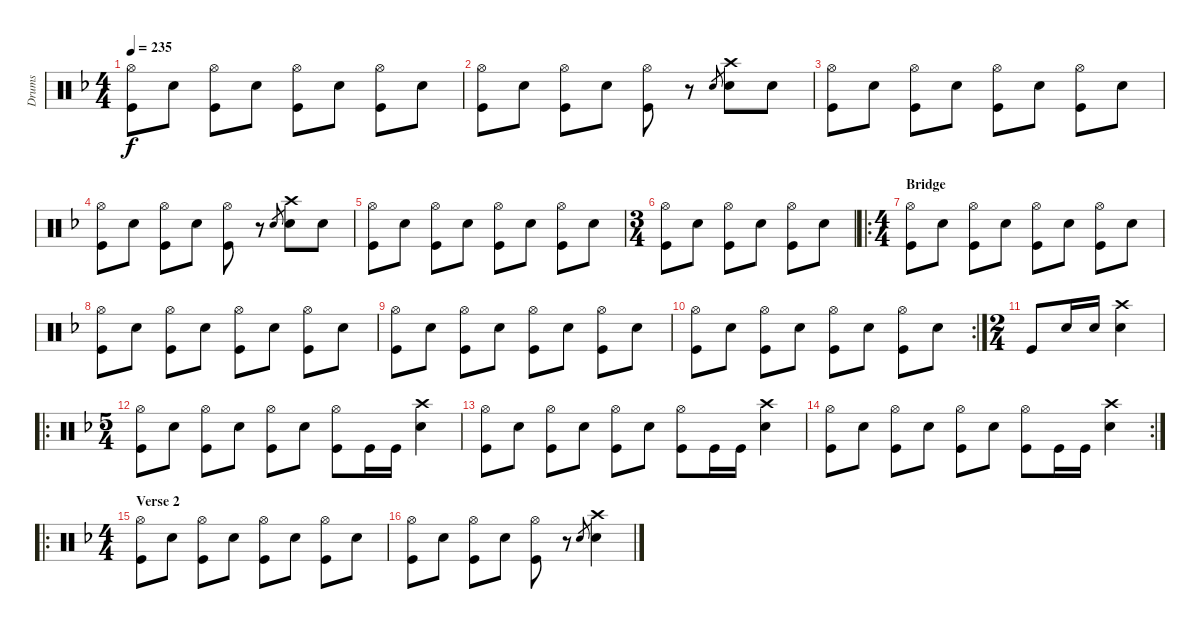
\track ("Drums" "Drums") {instrument percussion}
\staff {score}
\articulation defaults
\ts (4 4)
\tempo 235
\clef neutral
\ks f
("Hi-Hat (open)" "Kick (hit)").8{dy f} "Electric Snare (hit)".8 ("Hi-Hat (open)" "Kick (hit)").8 "Electric Snare (hit)".8 ("Hi-Hat (open)" "Kick (hit)").8 "Electric Snare (hit)".8 ("Hi-Hat (open)" "Kick (hit)").8 "Electric Snare (hit)".8 |
("Hi-Hat (open)" "Kick (hit)").8 "Electric Snare (hit)".8 ("Hi-Hat (open)" "Kick (hit)").8 "Electric Snare (hit)".8 ("Hi-Hat (open)" "Kick (hit)").8 r.8 "Electric Snare (hit)".8{gr} ("Crash high (hit)" "Electric Snare (hit)").8 "Electric Snare (hit)".8 |
("Hi-Hat (open)" "Kick (hit)").8 "Electric Snare (hit)".8 ("Hi-Hat (open)" "Kick (hit)").8 "Electric Snare (hit)".8 ("Hi-Hat (open)" "Kick (hit)").8 "Electric Snare (hit)".8 ("Hi-Hat (open)" "Kick (hit)").8 "Electric Snare (hit)".8 |
("Hi-Hat (open)" "Kick (hit)").8 "Electric Snare (hit)".8 ("Hi-Hat (open)" "Kick (hit)").8 "Electric Snare (hit)".8 ("Hi-Hat (open)" "Kick (hit)").8 r.8 "Electric Snare (hit)".8{gr} ("Crash high (hit)" "Electric Snare (hit)").8 "Electric Snare (hit)".8 |
("Hi-Hat (open)" "Kick (hit)").8 "Electric Snare (hit)".8 ("Hi-Hat (open)" "Kick (hit)").8 "Electric Snare (hit)".8 ("Hi-Hat (open)" "Kick (hit)").8 "Electric Snare (hit)".8 ("Hi-Hat (open)" "Kick (hit)").8 "Electric Snare (hit)".8 |
\ts (3 4)
("Hi-Hat (open)" "Kick (hit)").8 "Electric Snare (hit)".8 ("Hi-Hat (open)" "Kick (hit)").8 "Electric Snare (hit)".8 ("Hi-Hat (open)" "Kick (hit)").8 "Electric Snare (hit)".8 |
\ro
\ts (4 4)
\section ("" "Bridge")
("Hi-Hat (open)" "Kick (hit)").8 "Electric Snare (hit)".8 ("Hi-Hat (open)" "Kick (hit)").8 "Electric Snare (hit)".8 ("Hi-Hat (open)" "Kick (hit)").8 "Electric Snare (hit)".8 ("Hi-Hat (open)" "Kick (hit)").8 "Electric Snare (hit)".8 |
("Hi-Hat (open)" "Kick (hit)").8 "Electric Snare (hit)".8 ("Hi-Hat (open)" "Kick (hit)").8 "Electric Snare (hit)".8 ("Hi-Hat (open)" "Kick (hit)").8 "Electric Snare (hit)".8 ("Hi-Hat (open)" "Kick (hit)").8 "Electric Snare (hit)".8 |
("Hi-Hat (open)" "Kick (hit)").8 "Electric Snare (hit)".8 ("Hi-Hat (open)" "Kick (hit)").8 "Electric Snare (hit)".8 ("Hi-Hat (open)" "Kick (hit)").8 "Electric Snare (hit)".8 ("Hi-Hat (open)" "Kick (hit)").8 "Electric Snare (hit)".8 |
\rc 2
("Hi-Hat (open)" "Kick (hit)").8 "Electric Snare (hit)".8 ("Hi-Hat (open)" "Kick (hit)").8 "Electric Snare (hit)".8 ("Hi-Hat (open)" "Kick (hit)").8 "Electric Snare (hit)".8 ("Hi-Hat (open)" "Kick (hit)").8 "Electric Snare (hit)".8 |
\ts (2 4)
"Kick (hit)".8 "Electric Snare (hit)".16 "Electric Snare (hit)".16 ("Crash high (hit)" "Electric Snare (hit)").4 |
\ro
\ts (5 4)
("Hi-Hat (open)" "Kick (hit)").8 "Electric Snare (hit)".8 ("Hi-Hat (open)" "Kick (hit)").8 "Electric Snare (hit)".8 ("Hi-Hat (open)" "Kick (hit)").8 "Electric Snare (hit)".8 ("Hi-Hat (open)" "Kick (hit)").8 "Kick (hit)".16 "Kick (hit)".16 ("Crash high (hit)" "Electric Snare (hit)").4 |
("Hi-Hat (open)" "Kick (hit)").8 "Electric Snare (hit)".8 ("Hi-Hat (open)" "Kick (hit)").8 "Electric Snare (hit)".8 ("Hi-Hat (open)" "Kick (hit)").8 "Electric Snare (hit)".8 ("Hi-Hat (open)" "Kick (hit)").8 "Kick (hit)".16 "Kick (hit)".16 ("Crash high (hit)" "Electric Snare (hit)").4 |
\rc 2
("Hi-Hat (open)" "Kick (hit)").8 "Electric Snare (hit)".8 ("Hi-Hat (open)" "Kick (hit)").8 "Electric Snare (hit)".8 ("Hi-Hat (open)" "Kick (hit)").8 "Electric Snare (hit)".8 ("Hi-Hat (open)" "Kick (hit)").8 "Kick (hit)".16 "Kick (hit)".16 ("Crash high (hit)" "Electric Snare (hit)").4 |
\ro
\ts (4 4)
\section ("" "Verse 2")
("Hi-Hat (open)" "Kick (hit)").8 "Electric Snare (hit)".8 ("Hi-Hat (open)" "Kick (hit)").8 "Electric Snare (hit)".8 ("Hi-Hat (open)" "Kick (hit)").8 "Electric Snare (hit)".8 ("Hi-Hat (open)" "Kick (hit)").8 "Electric Snare (hit)".8 |
("Hi-Hat (open)" "Kick (hit)").8 "Electric Snare (hit)".8 ("Hi-Hat (open)" "Kick (hit)").8 "Electric Snare (hit)".8 ("Hi-Hat (open)" "Kick (hit)").8 r.8 "Electric Snare (hit)".8{gr} ("Crash high (hit)" "Electric Snare (hit)").4
